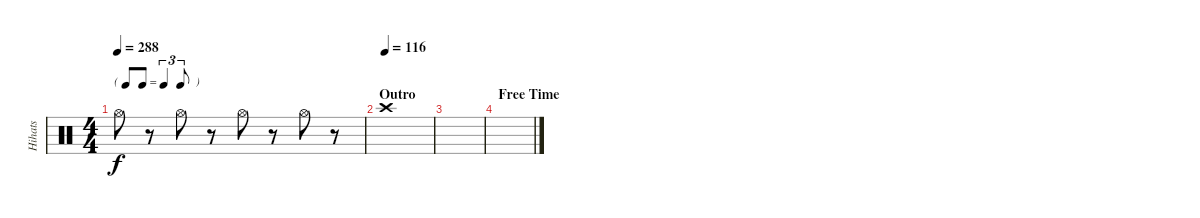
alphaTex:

\track ("Hihats" "Hihats") {instrument percussion}
\staff {score}
\articulation defaults
\ts (4 4)
\tf triplet8th
\tempo 288
\clef neutral
\ks c "Hi-Hat (open)".8{dy f}
r.8 "Hi-Hat (open)".8 r.8 "Hi-Hat (open)".8 r.8 "Hi-Hat (open)".8 r.8 |
\section ("" "Outro")
\tempo (116)
"Crash high (hit)".1 |
|
\section ("" "Free Time")
